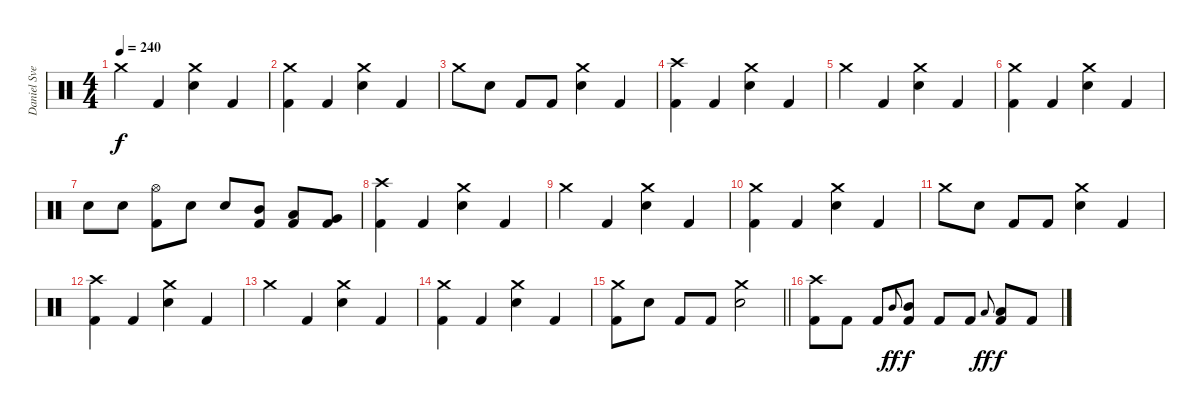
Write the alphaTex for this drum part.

\track ("Daniel Svensson" "Daniel Sve") {instrument percussion}
\staff {score}
\articulation defaults
\ts (4 4)
\tempo 240
\clef neutral
\ks c "Crash medium (hit)".4{dy f} "Kick (hit) 2".4
("Crash medium (hit)" "Electric Snare (hit)").4 "Kick (hit) 2".4 |
("Crash medium (hit)" "Kick (hit) 2").4 "Kick (hit) 2".4 ("Crash medium (hit)" "Electric Snare (hit)").4 "Kick (hit) 2".4 |
"Crash medium (hit)".8 "Electric Snare (hit)".8 "Kick (hit) 2".8 "Kick (hit) 2".8 ("Crash medium (hit)" "Electric Snare (hit)").4 "Kick (hit) 2".4 |
("Crash high (hit)" "Kick (hit) 2").4 "Kick (hit) 2".4 ("Crash medium (hit)" "Electric Snare (hit)").4 "Kick (hit) 2".4 |
"Crash medium (hit)".4 "Kick (hit) 2".4 ("Crash medium (hit)" "Electric Snare (hit)").4 "Kick (hit) 2".4 |
("Crash medium (hit)" "Kick (hit) 2").4 "Kick (hit) 2".4 ("Crash medium (hit)" "Electric Snare (hit)").4 "Kick (hit) 2".4 |
"Electric Snare (hit)".8 "Electric Snare (hit)".8 ("Hi-Hat (open)" "Kick (hit) 2").8 "Electric Snare (hit)".8 "Electric Snare (hit)".8 ("Mid Tom (hit)" "Kick (hit) 2").8 ("Low Tom (hit)" "Kick (hit) 2").8 ("Very Low Tom (hit)" "Kick (hit) 2").8 |
("Crash high (hit)" "Kick (hit) 2").4 "Kick (hit) 2".4 ("Crash medium (hit)" "Electric Snare (hit)").4 "Kick (hit) 2".4 |
"Crash medium (hit)".4 "Kick (hit) 2".4 ("Crash medium (hit)" "Electric Snare (hit)").4 "Kick (hit) 2".4 |
("Crash medium (hit)" "Kick (hit) 2").4 "Kick (hit) 2".4 ("Crash medium (hit)" "Electric Snare (hit)").4 "Kick (hit) 2".4 |
"Crash medium (hit)".8 "Electric Snare (hit)".8 "Kick (hit) 2".8 "Kick (hit) 2".8 ("Crash medium (hit)" "Electric Snare (hit)").4 "Kick (hit) 2".4 |
("Crash high (hit)" "Kick (hit) 2").4 "Kick (hit) 2".4 ("Crash medium (hit)" "Electric Snare (hit)").4 "Kick (hit) 2".4 |
"Crash medium (hit)".4 "Kick (hit) 2".4 ("Crash medium (hit)" "Electric Snare (hit)").4 "Kick (hit) 2".4 |
("Crash medium (hit)" "Kick (hit) 2").4 "Kick (hit) 2".4 ("Crash medium (hit)" "Electric Snare (hit)").4 "Kick (hit) 2".4 |
\barLineRight lightlight
("Crash medium (hit)" "Kick (hit) 2").8 "Electric Snare (hit)".8 "Kick (hit) 2".8 "Kick (hit) 2".8 ("Crash medium (hit)" "Electric Snare (hit)").2 |
\section ("" "")
("Crash high (hit)" "Kick (hit) 2").8 "Kick (hit) 2".8 "Kick (hit) 2".8 "Mid Tom (hit)".8{gr onbeat dy ff} ("Mid Tom (hit)" "Kick (hit) 2").8{dy f} "Kick (hit) 2".8 "Kick (hit) 2".8 "Low Tom (hit)".8{gr onbeat dy ff} ("Low Tom (hit)" "Kick (hit) 2").8{dy f} "Kick (hit) 2".8
